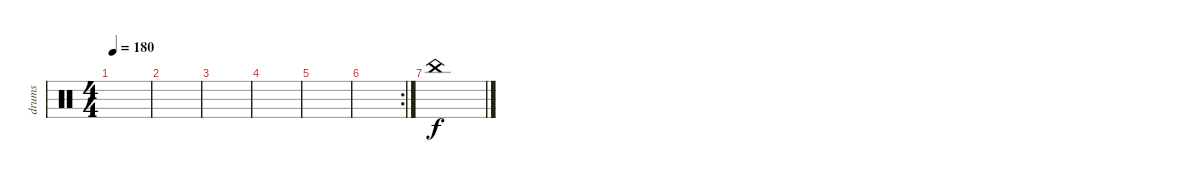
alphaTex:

\track ("drums" "drums") {instrument percussion}
\staff {score}
\articulation defaults
\ts (4 4)
\tempo 180
\clef neutral
\ks c
|
|
|
|
|
\rc 2
|
"China (hit)".1
